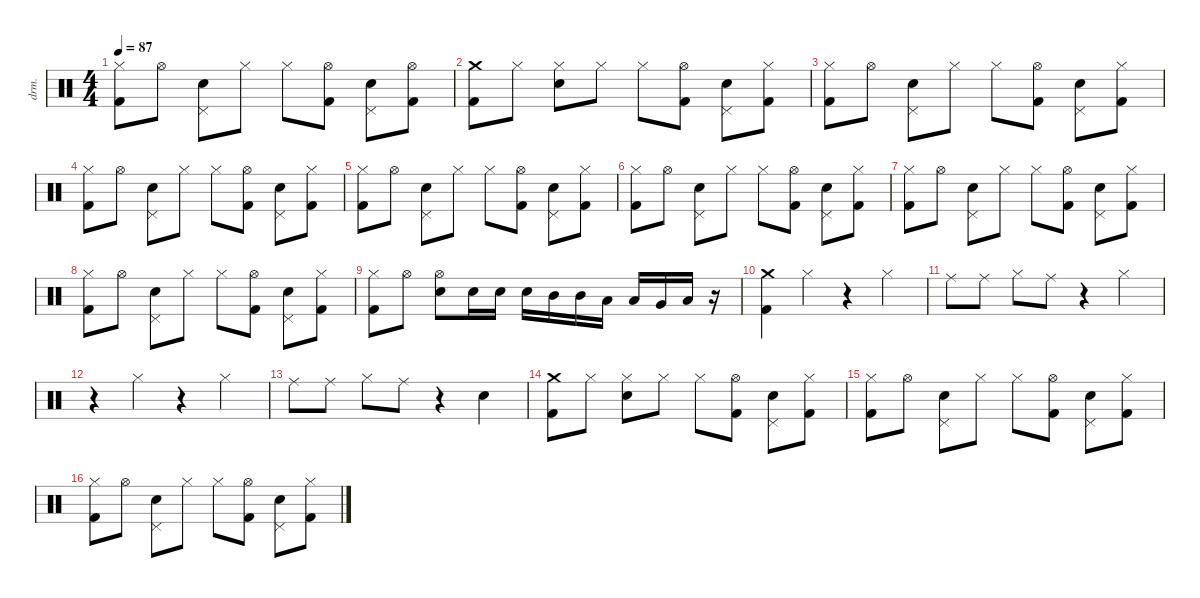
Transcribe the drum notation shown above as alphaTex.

\defaultSystemsLayout 4
\hideDynamics
\bracketExtendMode nobrackets
\otherSystemsTrackNameOrientation horizontal
\track ("Drums" "drm.") {instrument percussion}
\staff {score}
\articulation defaults
\ts (4 4)
\tempo 87
\clef neutral
\ks c
("Hi-Hat (closed)" "Kick (hit) 2").8{dy f} "Hi-Hat (open)".8 ("Pedal Hi-Hat (hit)" "Snare (hit) 2").8 "Hi-Hat (closed)".8 "Hi-Hat (closed)".8 ("Hi-Hat (open)" "Kick (hit) 2").8 ("Pedal Hi-Hat (hit)" "Snare (hit) 2").8 ("Hi-Hat (open)" "Kick (hit) 2").8 |
("Crash medium (hit)" "Kick (hit) 2").8 "Hi-Hat (closed)".8 ("Hi-Hat (closed)" "Snare (hit) 2").8 "Hi-Hat (closed)".8 "Hi-Hat (closed)".8 ("Hi-Hat (open)" "Kick (hit) 2").8 ("Pedal Hi-Hat (hit)" "Snare (hit) 2").8 ("Hi-Hat (closed)" "Kick (hit) 2").8 |
("Hi-Hat (closed)" "Kick (hit) 2").8 "Hi-Hat (open)".8 ("Pedal Hi-Hat (hit)" "Snare (hit) 2").8 "Hi-Hat (closed)".8 "Hi-Hat (closed)".8 ("Hi-Hat (open)" "Kick (hit) 2").8 ("Pedal Hi-Hat (hit)" "Snare (hit) 2").8 ("Hi-Hat (closed)" "Kick (hit) 2").8 |
("Hi-Hat (closed)" "Kick (hit) 2").8 "Hi-Hat (open)".8 ("Pedal Hi-Hat (hit)" "Snare (hit) 2").8 "Hi-Hat (closed)".8 "Hi-Hat (closed)".8 ("Hi-Hat (open)" "Kick (hit) 2").8 ("Pedal Hi-Hat (hit)" "Snare (hit) 2").8 ("Hi-Hat (closed)" "Kick (hit) 2").8 |
("Hi-Hat (closed)" "Kick (hit) 2").8 "Hi-Hat (open)".8 ("Pedal Hi-Hat (hit)" "Snare (hit) 2").8 "Hi-Hat (closed)".8 "Hi-Hat (closed)".8 ("Hi-Hat (open)" "Kick (hit) 2").8 ("Pedal Hi-Hat (hit)" "Snare (hit) 2").8 ("Hi-Hat (closed)" "Kick (hit) 2").8 |
("Hi-Hat (closed)" "Kick (hit) 2").8 "Hi-Hat (open)".8 ("Pedal Hi-Hat (hit)" "Snare (hit) 2").8 "Hi-Hat (closed)".8 "Hi-Hat (closed)".8 ("Hi-Hat (open)" "Kick (hit) 2").8 ("Pedal Hi-Hat (hit)" "Snare (hit) 2").8 ("Hi-Hat (closed)" "Kick (hit) 2").8 |
("Hi-Hat (closed)" "Kick (hit) 2").8 "Hi-Hat (open)".8 ("Pedal Hi-Hat (hit)" "Snare (hit) 2").8 "Hi-Hat (closed)".8 "Hi-Hat (closed)".8 ("Hi-Hat (open)" "Kick (hit) 2").8 ("Pedal Hi-Hat (hit)" "Snare (hit) 2").8 ("Hi-Hat (closed)" "Kick (hit) 2").8 |
("Hi-Hat (closed)" "Kick (hit) 2").8 "Hi-Hat (open)".8 ("Pedal Hi-Hat (hit)" "Snare (hit) 2").8 "Hi-Hat (closed)".8 "Hi-Hat (closed)".8 ("Hi-Hat (open)" "Kick (hit) 2").8 ("Pedal Hi-Hat (hit)" "Snare (hit) 2").8 ("Hi-Hat (closed)" "Kick (hit) 2").8 |
("Hi-Hat (closed)" "Kick (hit) 2").8 "Hi-Hat (open)".8 ("Hi-Hat (open)" "Snare (hit) 2").8 "Snare (hit) 2".16 "Snare (hit) 2".16 "Snare (hit) 2".16 "Mid Tom (hit)".16 "Mid Tom (hit)".16 "Low Tom (hit)".16 "Low Tom (hit)".16 "Very Low Tom (hit)".16 "Low Floor Tom (hit)".16 r.16 |
("Crash medium (hit)" "Kick (hit) 2").4{dy mf} "Hi-Hat (closed)".4{dy mp} r.4 "Hi-Hat (closed)".4 |
"Ride (middle)".8 "Ride (middle)".8 "Hi-Hat (closed)".8 "Ride (middle)".8 r.4 "Hi-Hat (closed)".4 |
r.4 "Hi-Hat (closed)".4 r.4 "Hi-Hat (closed)".4 |
"Ride (middle)".8 "Ride (middle)".8 "Hi-Hat (closed)".8 "Ride (middle)".8 r.4 "Snare (hit) 2".4{dy f} |
("Crash medium (hit)" "Kick (hit) 2").8 "Hi-Hat (closed)".8 ("Hi-Hat (closed)" "Snare (hit) 2").8 "Hi-Hat (closed)".8 "Hi-Hat (closed)".8 ("Hi-Hat (open)" "Kick (hit) 2").8 ("Pedal Hi-Hat (hit)" "Snare (hit) 2").8 ("Hi-Hat (closed)" "Kick (hit) 2").8 |
("Hi-Hat (closed)" "Kick (hit) 2").8 "Hi-Hat (open)".8 ("Pedal Hi-Hat (hit)" "Snare (hit) 2").8 "Hi-Hat (closed)".8 "Hi-Hat (closed)".8 ("Hi-Hat (open)" "Kick (hit) 2").8 ("Pedal Hi-Hat (hit)" "Snare (hit) 2").8 ("Hi-Hat (closed)" "Kick (hit) 2").8 |
("Hi-Hat (closed)" "Kick (hit) 2").8 "Hi-Hat (open)".8 ("Pedal Hi-Hat (hit)" "Snare (hit) 2").8 "Hi-Hat (closed)".8 "Hi-Hat (closed)".8 ("Hi-Hat (open)" "Kick (hit) 2").8 ("Pedal Hi-Hat (hit)" "Snare (hit) 2").8 ("Hi-Hat (closed)" "Kick (hit) 2").8
